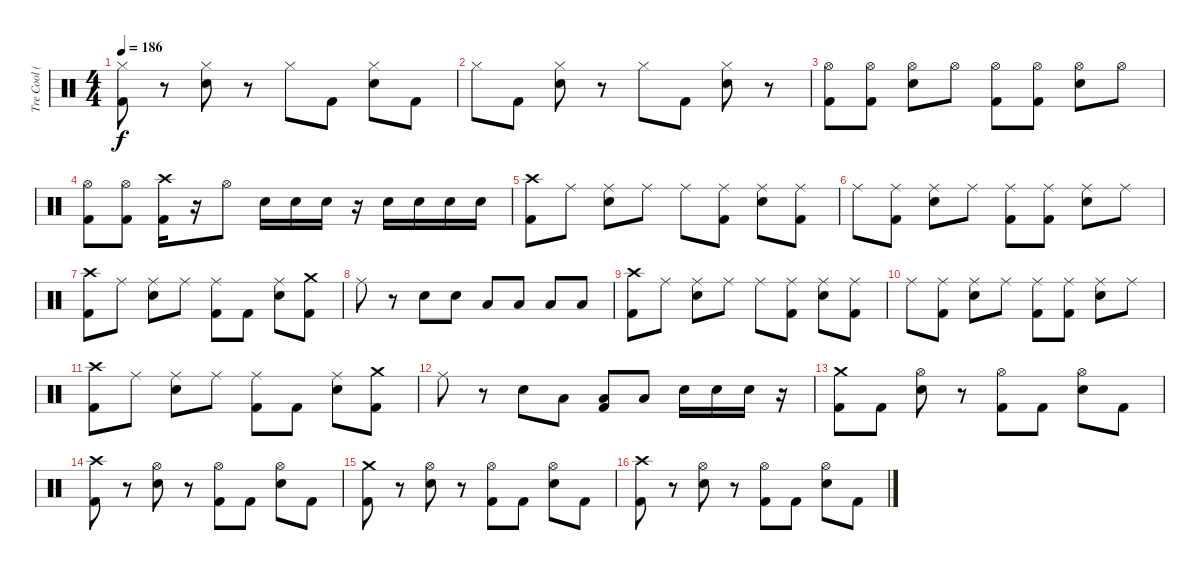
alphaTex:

\track ("Tre Cool (Drums)" "Tre Cool (") {instrument percussion}
\staff {score}
\articulation defaults
\ts (4 4)
\tempo 186
\clef neutral
\ks c
("Kick (hit) 2" "Hi-Hat (closed)").8{dy f} r.8 ("Snare (hit) 2" "Hi-Hat (closed)").8 r.8 "Hi-Hat (closed)".8 "Kick (hit) 2".8 ("Snare (hit) 2" "Hi-Hat (closed)").8 "Kick (hit) 2".8 |
"Hi-Hat (closed)".8 "Kick (hit) 2".8 ("Snare (hit) 2" "Hi-Hat (closed)").8 r.8 "Hi-Hat (closed)".8 "Kick (hit) 2".8 ("Snare (hit) 2" "Hi-Hat (closed)").8 r.8 |
("Hi-Hat (open)" "Kick (hit) 2").8 ("Kick (hit) 2" "Hi-Hat (open)").8 ("Hi-Hat (open)" "Snare (hit) 2").8 "Hi-Hat (open)".8 ("Hi-Hat (open)" "Kick (hit) 2").8 ("Kick (hit) 2" "Hi-Hat (open)").8 ("Hi-Hat (open)" "Snare (hit) 2").8 "Hi-Hat (open)".8 |
("Hi-Hat (open)" "Kick (hit) 2").8 ("Hi-Hat (open)" "Kick (hit) 2").8 ("Crash high (hit)" "Kick (hit) 2").16 r.16 "Hi-Hat (open)".8 "Snare (hit) 2".16 "Snare (hit) 2".16 "Snare (hit) 2".16 r.16 "Snare (hit) 2".16 "Snare (hit) 2".16 "Snare (hit) 2".16 "Snare (hit) 2".16 |
("Crash high (hit)" "Kick (hit) 2").8 "Ride (middle)".8 ("Snare (hit) 2" "Ride (middle)").8 "Ride (middle)".8 "Ride (middle)".8 ("Ride (middle)" "Kick (hit) 2").8 ("Ride (middle)" "Snare (hit) 2").8 ("Ride (middle)" "Kick (hit) 2").8 |
"Ride (middle)".8 ("Ride (middle)" "Kick (hit) 2").8 ("Ride (middle)" "Snare (hit) 2").8 "Ride (middle)".8 ("Ride (middle)" "Kick (hit) 2").8 ("Ride (middle)" "Kick (hit) 2").8 ("Ride (middle)" "Snare (hit) 2").8 "Ride (middle)".8 |
("Crash high (hit)" "Kick (hit) 2").8 "Ride (middle)".8 ("Ride (middle)" "Snare (hit) 2").8 "Ride (middle)".8 ("Ride (middle)" "Kick (hit) 2").8 "Kick (hit) 2".8 ("Ride (middle)" "Snare (hit) 2").8 ("Crash medium (hit)" "Kick (hit) 2").8 |
"Ride (middle)".8 r.8 "Snare (hit) 2".8 "Snare (hit) 2".8 "Low Floor Tom (hit)".8 "Low Floor Tom (hit)".8 "Low Tom (hit)".8 "Low Tom (hit)".8 |
("Crash high (hit)" "Kick (hit) 2").8 "Ride (middle)".8 ("Snare (hit) 2" "Ride (middle)").8 "Ride (middle)".8 "Ride (middle)".8 ("Ride (middle)" "Kick (hit) 2").8 ("Ride (middle)" "Snare (hit) 2").8 ("Ride (middle)" "Kick (hit) 2").8 |
"Ride (middle)".8 ("Kick (hit) 2" "Ride (middle)").8 ("Snare (hit) 2" "Ride (middle)").8 "Ride (middle)".8 ("Kick (hit) 2" "Ride (middle)").8 ("Kick (hit) 2" "Ride (middle)").8 ("Snare (hit) 2" "Ride (middle)").8 "Ride (middle)".8 |
("Kick (hit) 2" "Crash high (hit)").8 "Ride (middle)".8 ("Snare (hit) 2" "Ride (middle)").8 "Ride (middle)".8 ("Kick (hit) 2" "Ride (middle)").8 "Kick (hit) 2".8 ("Snare (hit) 2" "Ride (middle)").8 ("Kick (hit) 2" "Crash medium (hit)").8 |
"Ride (middle)".8 r.8 "Snare (hit) 2".8 "Low Tom (hit)".8 ("Low Floor Tom (hit)" "Kick (hit) 2").8 "Low Tom (hit)".8 "Snare (hit) 2".16 "Snare (hit) 2".16 "Snare (hit) 2".16 r.16 |
("Kick (hit) 2" "Crash medium (hit)").8 "Kick (hit) 2".8 ("Snare (hit) 2" "Hi-Hat (open)").8 r.8 ("Kick (hit) 2" "Hi-Hat (open)").8 "Kick (hit) 2".8 ("Snare (hit) 2" "Hi-Hat (open)").8 "Kick (hit) 2".8 |
("Kick (hit) 2" "Crash high (hit)").8 r.8 ("Snare (hit) 2" "Hi-Hat (open)").8 r.8 ("Kick (hit) 2" "Hi-Hat (open)").8 "Kick (hit) 2".8 ("Snare (hit) 2" "Hi-Hat (open)").8 "Kick (hit) 2".8 |
("Crash medium (hit)" "Kick (hit) 2").8 r.8 ("Hi-Hat (open)" "Snare (hit) 2").8 r.8 ("Hi-Hat (open)" "Kick (hit) 2").8 "Kick (hit) 2".8 ("Hi-Hat (open)" "Snare (hit) 2").8 "Kick (hit) 2".8 |
("Crash high (hit)" "Kick (hit) 2").8 r.8 ("Hi-Hat (open)" "Snare (hit) 2").8 r.8 ("Hi-Hat (open)" "Kick (hit) 2").8 "Kick (hit) 2".8 ("Hi-Hat (open)" "Snare (hit) 2").8 "Kick (hit) 2".8
